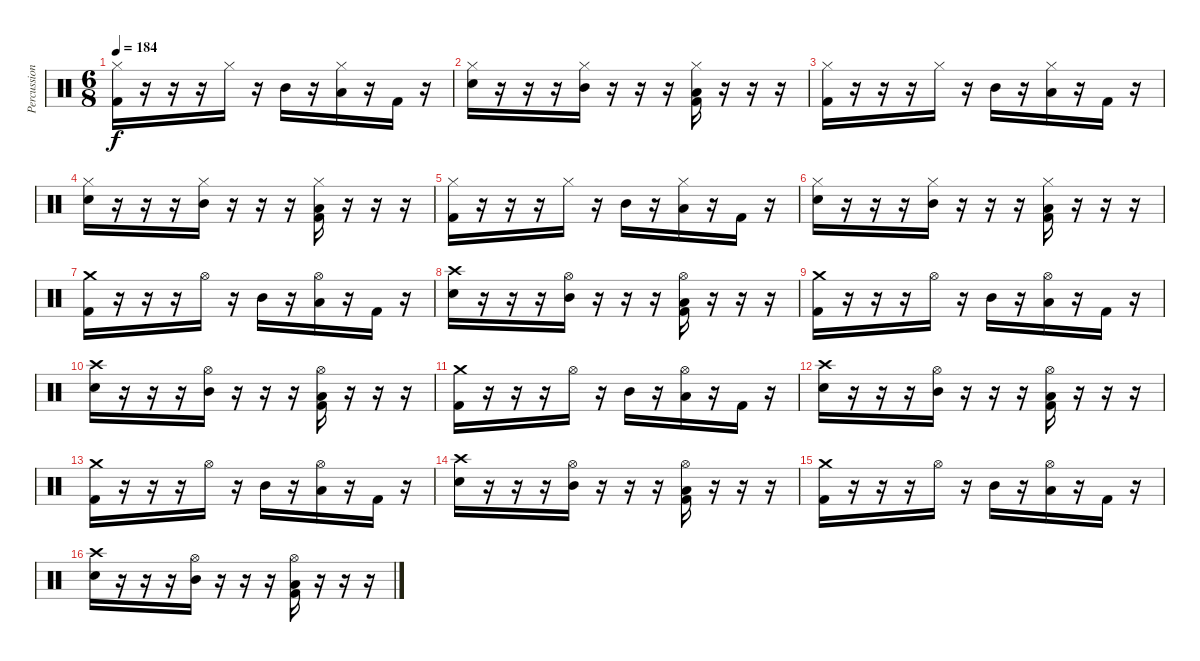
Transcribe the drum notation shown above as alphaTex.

\track ("Percussion" "Percussion") {instrument percussion}
\staff {score}
\articulation defaults
\ts (6 8)
\tempo 184
\clef neutral
\ks c
("Hi-Hat (closed)" "Kick (hit) 2").16{dy f} r.16 r.16 r.16 "Hi-Hat (closed)".16 r.16 "Mid Tom (hit)".16 r.16 ("Hi-Hat (closed)" "Low Tom (hit)").16 r.16 "Kick (hit) 2".16 r.16 |
("Hi-Hat (closed)" "Electric Snare (hit)").16 r.16 r.16 r.16 ("Hi-Hat (closed)" "Mid Tom (hit)").16 r.16 r.16 r.16 ("Hi-Hat (closed)" "Low Tom (hit)" "Kick (hit) 2").16 r.16 r.16 r.16 |
("Hi-Hat (closed)" "Kick (hit) 2").16 r.16 r.16 r.16 "Hi-Hat (closed)".16 r.16 "Mid Tom (hit)".16 r.16 ("Hi-Hat (closed)" "Low Tom (hit)").16 r.16 "Kick (hit) 2".16 r.16 |
("Hi-Hat (closed)" "Electric Snare (hit)").16 r.16 r.16 r.16 ("Hi-Hat (closed)" "Mid Tom (hit)").16 r.16 r.16 r.16 ("Hi-Hat (closed)" "Low Tom (hit)" "Kick (hit) 2").16 r.16 r.16 r.16 |
("Hi-Hat (closed)" "Kick (hit) 2").16 r.16 r.16 r.16 "Hi-Hat (closed)".16 r.16 "Mid Tom (hit)".16 r.16 ("Hi-Hat (closed)" "Low Tom (hit)").16 r.16 "Kick (hit) 2".16 r.16 |
("Hi-Hat (closed)" "Electric Snare (hit)").16 r.16 r.16 r.16 ("Hi-Hat (closed)" "Mid Tom (hit)").16 r.16 r.16 r.16 ("Hi-Hat (closed)" "Low Tom (hit)" "Kick (hit) 2").16 r.16 r.16 r.16 |
("Crash medium (hit)" "Kick (hit) 2").16 r.16 r.16 r.16 "Hi-Hat (open)".16 r.16 "Mid Tom (hit)".16 r.16 ("Hi-Hat (open)" "Low Tom (hit)").16 r.16 "Kick (hit) 2".16 r.16 |
("Crash high (hit)" "Electric Snare (hit)").16 r.16 r.16 r.16 ("Hi-Hat (open)" "Mid Tom (hit)").16 r.16 r.16 r.16 ("Hi-Hat (open)" "Low Tom (hit)" "Kick (hit) 2").16 r.16 r.16 r.16 |
("Crash medium (hit)" "Kick (hit) 2").16 r.16 r.16 r.16 "Hi-Hat (open)".16 r.16 "Mid Tom (hit)".16 r.16 ("Hi-Hat (open)" "Low Tom (hit)").16 r.16 "Kick (hit) 2".16 r.16 |
("Crash high (hit)" "Electric Snare (hit)").16 r.16 r.16 r.16 ("Hi-Hat (open)" "Mid Tom (hit)").16 r.16 r.16 r.16 ("Hi-Hat (open)" "Low Tom (hit)" "Kick (hit) 2").16 r.16 r.16 r.16 |
("Crash medium (hit)" "Kick (hit) 2").16 r.16 r.16 r.16 "Hi-Hat (open)".16 r.16 "Mid Tom (hit)".16 r.16 ("Hi-Hat (open)" "Low Tom (hit)").16 r.16 "Kick (hit) 2".16 r.16 |
("Crash high (hit)" "Electric Snare (hit)").16 r.16 r.16 r.16 ("Hi-Hat (open)" "Mid Tom (hit)").16 r.16 r.16 r.16 ("Hi-Hat (open)" "Low Tom (hit)" "Kick (hit) 2").16 r.16 r.16 r.16 |
("Crash medium (hit)" "Kick (hit) 2").16 r.16 r.16 r.16 "Hi-Hat (open)".16 r.16 "Mid Tom (hit)".16 r.16 ("Hi-Hat (open)" "Low Tom (hit)").16 r.16 "Kick (hit) 2".16 r.16 |
("Crash high (hit)" "Electric Snare (hit)").16 r.16 r.16 r.16 ("Hi-Hat (open)" "Mid Tom (hit)").16 r.16 r.16 r.16 ("Hi-Hat (open)" "Low Tom (hit)" "Kick (hit) 2").16 r.16 r.16 r.16 |
("Crash medium (hit)" "Kick (hit) 2").16 r.16 r.16 r.16 "Hi-Hat (open)".16 r.16 "Mid Tom (hit)".16 r.16 ("Hi-Hat (open)" "Low Tom (hit)").16 r.16 "Kick (hit) 2".16 r.16 |
("Crash high (hit)" "Electric Snare (hit)").16 r.16 r.16 r.16 ("Hi-Hat (open)" "Mid Tom (hit)").16 r.16 r.16 r.16 ("Hi-Hat (open)" "Low Tom (hit)" "Kick (hit) 2").16 r.16 r.16 r.16
